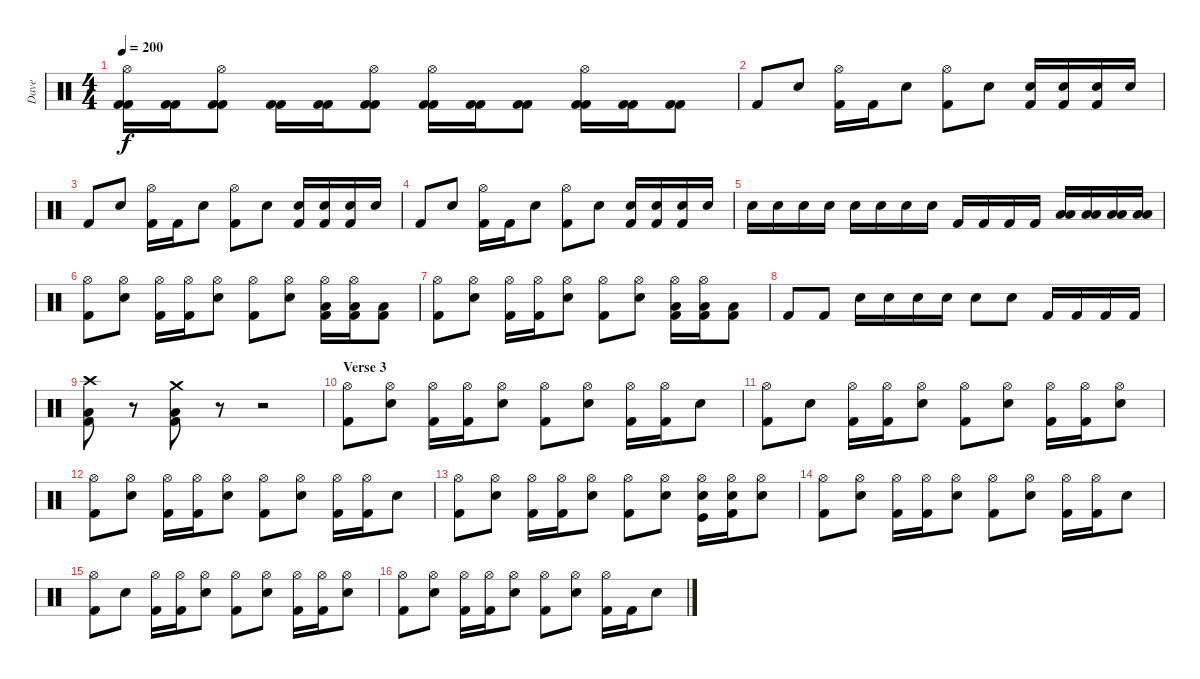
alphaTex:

\track ("Dave" "Dave") {instrument percussion}
\staff {score}
\articulation defaults
\ts (4 4)
\tempo 200
\clef neutral
\ks c
("Hi-Hat (open)" "Kick (hit) 2" "Kick (hit) 2").16{dy f} ("Kick (hit) 2" "Kick (hit) 2").16 ("Hi-Hat (open)" "Kick (hit) 2" "Kick (hit) 2").8 ("Kick (hit) 2" "Kick (hit) 2").16 ("Kick (hit) 2" "Kick (hit) 2").16 ("Hi-Hat (open)" "Kick (hit) 2" "Kick (hit) 2").8 ("Hi-Hat (open)" "Kick (hit) 2" "Kick (hit) 2").16 ("Kick (hit) 2" "Kick (hit) 2").16 ("Kick (hit) 2" "Kick (hit) 2").8 ("Hi-Hat (open)" "Kick (hit) 2" "Kick (hit) 2").16 ("Kick (hit) 2" "Kick (hit) 2").16 ("Kick (hit) 2" "Kick (hit) 2").8 |
"Kick (hit) 2".8 "Snare (hit) 2".8 ("Hi-Hat (open)" "Kick (hit) 2").16 "Kick (hit) 2".16 "Snare (hit) 2".8 ("Hi-Hat (open)" "Kick (hit) 2").8 "Snare (hit) 2".8 ("Snare (hit) 2" "Kick (hit) 2").16 ("Snare (hit) 2" "Kick (hit) 2").16 ("Snare (hit) 2" "Kick (hit) 2").16 "Snare (hit) 2".16 |
"Kick (hit) 2".8 "Snare (hit) 2".8 ("Hi-Hat (open)" "Kick (hit) 2").16 "Kick (hit) 2".16 "Snare (hit) 2".8 ("Hi-Hat (open)" "Kick (hit) 2").8 "Snare (hit) 2".8 ("Snare (hit) 2" "Kick (hit) 2").16 ("Snare (hit) 2" "Kick (hit) 2").16 ("Snare (hit) 2" "Kick (hit) 2").16 "Snare (hit) 2".16 |
"Kick (hit) 2".8 "Snare (hit) 2".8 ("Hi-Hat (open)" "Kick (hit) 2").16 "Kick (hit) 2".16 "Snare (hit) 2".8 ("Hi-Hat (open)" "Kick (hit) 2").8 "Snare (hit) 2".8 ("Snare (hit) 2" "Kick (hit) 2").16 ("Snare (hit) 2" "Kick (hit) 2").16 ("Snare (hit) 2" "Kick (hit) 2").16 "Snare (hit) 2".16 |
"Snare (hit) 2".16 "Snare (hit) 2".16 "Snare (hit) 2".16 "Snare (hit) 2".16 "Snare (hit) 2".16 "Snare (hit) 2".16 "Snare (hit) 2".16 "Snare (hit) 2".16 "Kick (hit) 2".16 "Kick (hit) 2".16 "Kick (hit) 2".16 "Kick (hit) 2".16 ("Low Floor Tom (hit)" "Low Floor Tom (hit)").16 ("Low Floor Tom (hit)" "Low Floor Tom (hit)").16 ("Low Floor Tom (hit)" "Low Floor Tom (hit)").16 ("Low Floor Tom (hit)" "Low Floor Tom (hit)").16 |
("Hi-Hat (open)" "Kick (hit) 2").8 ("Hi-Hat (open)" "Snare (hit) 2").8 ("Hi-Hat (open)" "Kick (hit) 2").16 ("Hi-Hat (open)" "Kick (hit) 2").16 ("Hi-Hat (open)" "Snare (hit) 2").8 ("Hi-Hat (open)" "Kick (hit) 2").8 ("Hi-Hat (open)" "Snare (hit) 2").8 ("Hi-Hat (open)" "Low Floor Tom (hit)" "Kick (hit) 2").16 ("Hi-Hat (open)" "Low Floor Tom (hit)" "Kick (hit) 2").16 ("Low Floor Tom (hit)" "Kick (hit) 2").8 |
("Hi-Hat (open)" "Kick (hit) 2").8 ("Hi-Hat (open)" "Snare (hit) 2").8 ("Hi-Hat (open)" "Kick (hit) 2").16 ("Hi-Hat (open)" "Kick (hit) 2").16 ("Hi-Hat (open)" "Snare (hit) 2").8 ("Hi-Hat (open)" "Kick (hit) 2").8 ("Hi-Hat (open)" "Snare (hit) 2").8 ("Hi-Hat (open)" "Low Floor Tom (hit)" "Kick (hit) 2").16 ("Hi-Hat (open)" "Low Floor Tom (hit)" "Kick (hit) 2").16 ("Low Floor Tom (hit)" "Kick (hit) 2").8 |
"Kick (hit) 2".8 "Kick (hit) 2".8 "Snare (hit) 2".16 "Snare (hit) 2".16 "Snare (hit) 2".16 "Snare (hit) 2".16 "Snare (hit) 2".8 "Snare (hit) 2".8 "Kick (hit) 2".16 "Kick (hit) 2".16 "Kick (hit) 2".16 "Kick (hit) 2".16 |
("Crash high (hit)" "Kick (hit) 2" "Low Floor Tom (hit)").8 r.8 ("Crash medium (hit)" "Kick (hit) 2" "Low Floor Tom (hit)").8 r.8 r.2 |
\section ("" "Verse 3")
("Hi-Hat (open)" "Kick (hit) 2").8 ("Hi-Hat (open)" "Snare (hit) 2").8 ("Hi-Hat (open)" "Kick (hit) 2").16 ("Hi-Hat (open)" "Kick (hit) 2").16 ("Hi-Hat (open)" "Snare (hit) 2").8 ("Hi-Hat (open)" "Kick (hit) 2").8 ("Hi-Hat (open)" "Snare (hit) 2").8 ("Hi-Hat (open)" "Kick (hit) 2").16 ("Hi-Hat (open)" "Kick (hit) 2").16 "Snare (hit) 2".8 |
("Hi-Hat (open)" "Kick (hit) 2").8 "Snare (hit) 2".8 ("Hi-Hat (open)" "Kick (hit) 2").16 ("Hi-Hat (open)" "Kick (hit) 2").16 ("Hi-Hat (open)" "Snare (hit) 2").8 ("Hi-Hat (open)" "Kick (hit) 2").8 ("Hi-Hat (open)" "Snare (hit) 2").8 ("Hi-Hat (open)" "Kick (hit) 2").16 ("Hi-Hat (open)" "Kick (hit) 2").16 ("Hi-Hat (open)" "Snare (hit) 2").8 |
("Hi-Hat (open)" "Kick (hit) 2").8 ("Hi-Hat (open)" "Snare (hit) 2").8 ("Hi-Hat (open)" "Kick (hit) 2").16 ("Hi-Hat (open)" "Kick (hit) 2").16 ("Hi-Hat (open)" "Snare (hit) 2").8 ("Hi-Hat (open)" "Kick (hit) 2").8 ("Hi-Hat (open)" "Snare (hit) 2").8 ("Hi-Hat (open)" "Kick (hit) 2").16 ("Hi-Hat (open)" "Kick (hit) 2").16 "Snare (hit) 2".8 |
("Hi-Hat (open)" "Kick (hit) 2").8 ("Hi-Hat (open)" "Snare (hit) 2").8 ("Hi-Hat (open)" "Kick (hit) 2").16 ("Hi-Hat (open)" "Kick (hit) 2").16 ("Hi-Hat (open)" "Snare (hit) 2").8 ("Hi-Hat (open)" "Kick (hit) 2").8 ("Hi-Hat (open)" "Snare (hit) 2").8 ("Hi-Hat (open)" "Snare (hit) 2" "Kick (hit)").16 ("Hi-Hat (open)" "Snare (hit) 2" "Kick (hit) 2").16 ("Hi-Hat (open)" "Snare (hit) 2").8 |
("Hi-Hat (open)" "Kick (hit) 2").8 ("Hi-Hat (open)" "Snare (hit) 2").8 ("Hi-Hat (open)" "Kick (hit) 2").16 ("Hi-Hat (open)" "Kick (hit) 2").16 ("Hi-Hat (open)" "Snare (hit) 2").8 ("Hi-Hat (open)" "Kick (hit) 2").8 ("Hi-Hat (open)" "Snare (hit) 2").8 ("Hi-Hat (open)" "Kick (hit) 2").16 ("Hi-Hat (open)" "Kick (hit) 2").16 "Snare (hit) 2".8 |
("Hi-Hat (open)" "Kick (hit) 2").8 "Snare (hit) 2".8 ("Hi-Hat (open)" "Kick (hit) 2").16 ("Hi-Hat (open)" "Kick (hit) 2").16 ("Hi-Hat (open)" "Snare (hit) 2").8 ("Hi-Hat (open)" "Kick (hit) 2").8 ("Hi-Hat (open)" "Snare (hit) 2").8 ("Hi-Hat (open)" "Kick (hit) 2").16 ("Hi-Hat (open)" "Kick (hit) 2").16 ("Hi-Hat (open)" "Snare (hit) 2").8 |
("Hi-Hat (open)" "Kick (hit) 2").8 ("Hi-Hat (open)" "Snare (hit) 2").8 ("Hi-Hat (open)" "Kick (hit) 2").16 ("Hi-Hat (open)" "Kick (hit) 2").16 ("Hi-Hat (open)" "Snare (hit) 2").8 ("Hi-Hat (open)" "Kick (hit) 2").8 ("Hi-Hat (open)" "Snare (hit) 2").8 ("Hi-Hat (open)" "Kick (hit) 2").16 "Kick (hit) 2".16 "Snare (hit) 2".8
